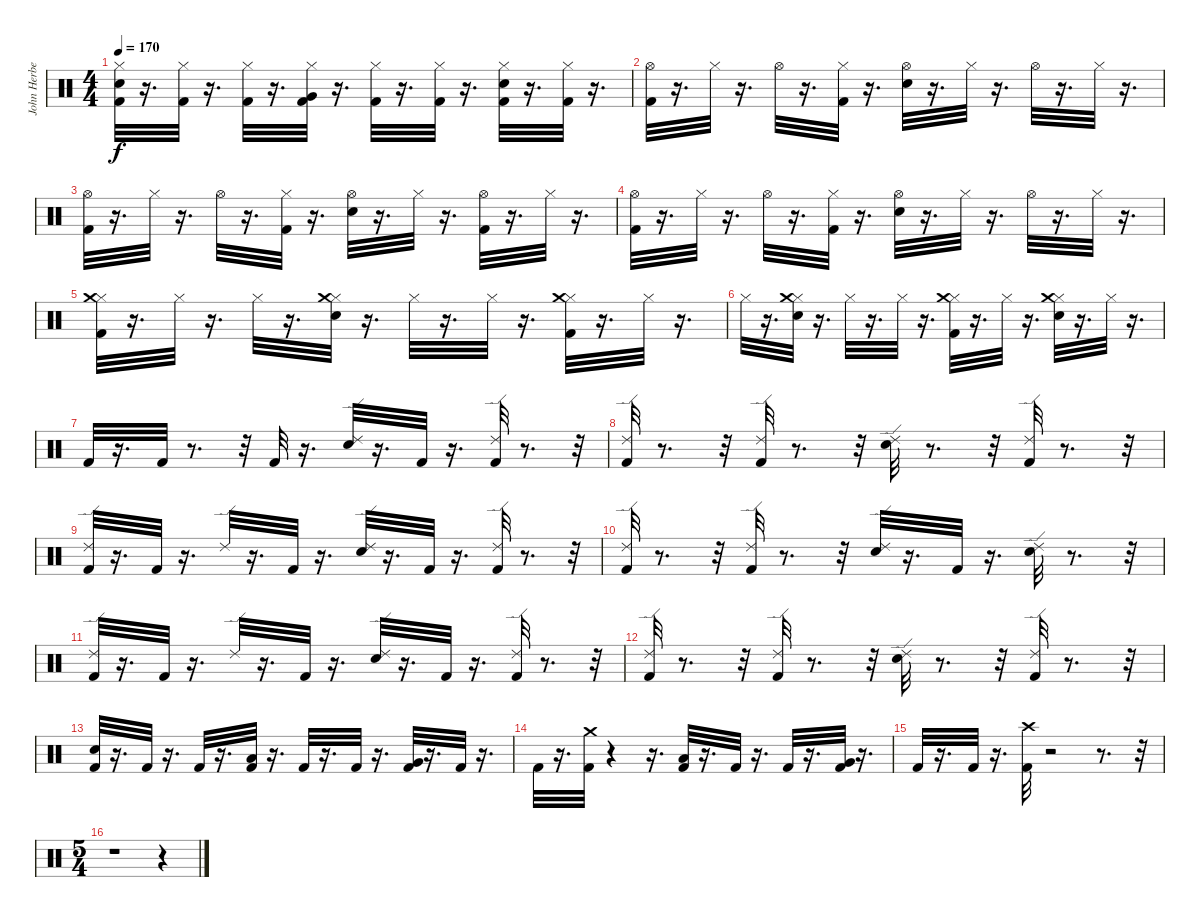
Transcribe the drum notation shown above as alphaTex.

\track ("John Herbert" "John Herbe") {instrument percussion}
\staff {score}
\articulation defaults
\ts (4 4)
\tempo 170
\clef neutral
\ks c
("Snare (hit) 2" "Hi-Hat (closed)" "Kick (hit) 2").32{dy f} r.16{d} ("Hi-Hat (closed)" "Kick (hit) 2").32 r.16{d} ("Hi-Hat (closed)" "Kick (hit) 2").32 r.16{d} ("Very Low Tom (hit)" "Hi-Hat (closed)" "Kick (hit) 2").32 r.16{d} ("Hi-Hat (closed)" "Kick (hit) 2").32 r.16{d} ("Hi-Hat (closed)" "Kick (hit) 2").32 r.16{d} ("Snare (hit) 2" "Hi-Hat (closed)" "Kick (hit) 2").32 r.16{d} ("Hi-Hat (closed)" "Kick (hit) 2").32 r.16{d} |
("Kick (hit) 2" "Hi-Hat (open)").32 r.16{d} "Hi-Hat (closed)".32 r.16{d} "Hi-Hat (open)".32 r.16{d} ("Kick (hit) 2" "Hi-Hat (closed)").32 r.16{d} ("Snare (hit) 2" "Hi-Hat (open)").32 r.16{d} "Hi-Hat (closed)".32 r.16{d} "Hi-Hat (open)".32 r.16{d} "Hi-Hat (closed)".32 r.16{d} |
("Hi-Hat (open)" "Kick (hit) 2").32 r.16{d} "Hi-Hat (closed)".32 r.16{d} "Hi-Hat (open)".32 r.16{d} ("Hi-Hat (closed)" "Kick (hit) 2").32 r.16{d} ("Snare (hit) 2" "Hi-Hat (open)").32 r.16{d} "Hi-Hat (closed)".32 r.16{d} ("Kick (hit) 2" "Hi-Hat (open)").32 r.16{d} "Hi-Hat (closed)".32 r.16{d} |
("Kick (hit) 2" "Hi-Hat (open)").32 r.16{d} "Hi-Hat (closed)".32 r.16{d} "Hi-Hat (open)".32 r.16{d} ("Kick (hit) 2" "Hi-Hat (closed)").32 r.16{d} ("Snare (hit) 2" "Hi-Hat (open)").32 r.16{d} "Hi-Hat (closed)".32 r.16{d} "Hi-Hat (open)".32 r.16{d} "Hi-Hat (closed)".32 r.16{d} |
("Hi-Hat (closed)" "Kick (hit) 2" "Crash medium (hit)").32 r.16{d} "Hi-Hat (closed)".32 r.16{d} "Hi-Hat (closed)".32 r.16{d} ("Hi-Hat (closed)" "Snare (hit) 2" "Crash medium (hit)").32 r.16{d} "Hi-Hat (closed)".32 r.16{d} "Hi-Hat (closed)".32 r.16{d} ("Hi-Hat (closed)" "Kick (hit) 2" "Crash medium (hit)").32 r.16{d} "Hi-Hat (closed)".32 r.16{d} |
"Hi-Hat (closed)".32 r.16{d} ("Hi-Hat (closed)" "Crash medium (hit)" "Snare (hit) 2").32 r.16{d} "Hi-Hat (closed)".32 r.16{d} "Hi-Hat (closed)".32 r.16{d} ("Hi-Hat (closed)" "Crash medium (hit)" "Kick (hit) 2").32 r.16{d} "Hi-Hat (closed)".32 r.16{d} ("Hi-Hat (closed)" "Snare (hit) 2" "Crash medium (hit)").32 r.16{d} "Hi-Hat (closed)".32 r.16{d} |
"Kick (hit) 2".32 r.16{d} "Kick (hit) 2".32 r.8{d} r.32 "Kick (hit) 2".32 r.16{d} ("Ride (edge) 2" "Snare (hit) 2").32 r.16{d} "Kick (hit) 2".32 r.16{d} ("Ride (edge) 2" "Kick (hit) 2").32 r.8{d} r.32 |
("Ride (edge) 2" "Kick (hit) 2").32 r.8{d} r.32 ("Ride (edge) 2" "Kick (hit) 2").32 r.8{d} r.32 ("Ride (edge) 2" "Snare (hit) 2").32 r.8{d} r.32 ("Kick (hit) 2" "Ride (edge) 2").32 r.8{d} r.32 |
("Ride (edge) 2" "Kick (hit) 2").32 r.16{d} "Kick (hit) 2".32 r.16{d} "Ride (edge) 2".32 r.16{d} "Kick (hit) 2".32 r.16{d} ("Ride (edge) 2" "Snare (hit) 2").32 r.16{d} "Kick (hit) 2".32 r.16{d} ("Ride (edge) 2" "Kick (hit) 2").32 r.8{d} r.32 |
("Ride (edge) 2" "Kick (hit) 2").32 r.8{d} r.32 ("Kick (hit) 2" "Ride (edge) 2").32 r.8{d} r.32 ("Snare (hit) 2" "Ride (edge) 2").32 r.16{d} "Kick (hit) 2".32 r.16{d} ("Snare (hit) 2" "Ride (edge) 2").32 r.8{d} r.32 |
("Ride (edge) 2" "Kick (hit) 2").32 r.16{d} "Kick (hit) 2".32 r.16{d} "Ride (edge) 2".32 r.16{d} "Kick (hit) 2".32 r.16{d} ("Ride (edge) 2" "Snare (hit) 2").32 r.16{d} "Kick (hit) 2".32 r.16{d} ("Ride (edge) 2" "Kick (hit) 2").32 r.8{d} r.32 |
("Ride (edge) 2" "Kick (hit) 2").32 r.8{d} r.32 ("Ride (edge) 2" "Kick (hit) 2").32 r.8{d} r.32 ("Ride (edge) 2" "Snare (hit) 2").32 r.8{d} r.32 ("Kick (hit) 2" "Ride (edge) 2").32 r.8{d} r.32 |
("Snare (hit) 2" "Kick (hit) 2").32 r.16{d} "Kick (hit) 2".32 r.16{d} "Kick (hit) 2".32 r.16{d} ("Low Tom (hit)" "Kick (hit) 2").32 r.16{d} "Kick (hit) 2".32 r.16{d} "Kick (hit) 2".32 r.16{d} ("Very Low Tom (hit)" "Kick (hit) 2").32 r.16{d} "Kick (hit) 2".32 r.16{d} |
"Kick (hit) 2".32 r.16{d} ("Crash medium (hit)" "Kick (hit) 2").32 r.4 r.16{d} ("Low Tom (hit)" "Kick (hit) 2").32 r.16{d} "Kick (hit) 2".32 r.16{d} "Kick (hit) 2".32 r.16{d} ("Very Low Tom (hit)" "Kick (hit) 2").32 r.16{d} |
"Kick (hit) 2".32 r.16{d} "Kick (hit) 2".32 r.16{d} ("Crash high (hit)" "Kick (hit) 2").32 r.2 r.8{d} r.32 |
\ts (5 4)
r.1 r.4
